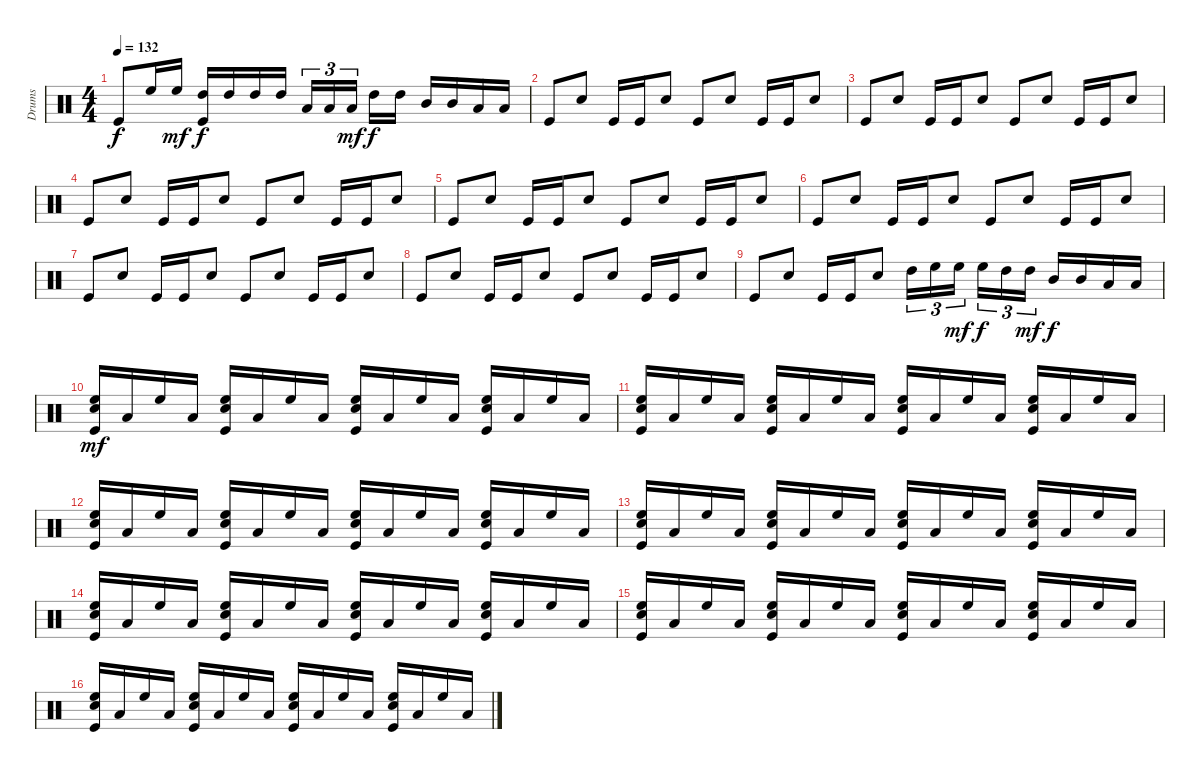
\track ("Drums" "Drums") {instrument percussion}
\staff {score}
\articulation defaults
\ts (4 4)
\tempo 132
\clef neutral
\ks c "Kick (hit)".8{dy f} "High Floor Tom (hit)".16 "High Floor Tom (hit)".16{dy mf}
("Kick (hit)" "High Tom (hit)").16{dy f} "High Tom (hit)".16 "High Tom (hit)".16 "High Tom (hit)".16 "Low Tom (hit)".16{tu (3 2)} "Low Tom (hit)".16{tu (3 2)} "Low Tom (hit)".16{tu (3 2) dy mf} "High Tom (hit)".16{dy f} "High Tom (hit)".16 "Mid Tom (hit)".16 "Mid Tom (hit)".16 "Low Tom (hit)".16 "Low Tom (hit)".16 |
"Kick (hit)".8 "Electric Snare (hit)".8 "Kick (hit)".16 "Kick (hit)".16 "Electric Snare (hit)".8 "Kick (hit)".8 "Electric Snare (hit)".8 "Kick (hit)".16 "Kick (hit)".16 "Electric Snare (hit)".8 |
"Kick (hit)".8 "Electric Snare (hit)".8 "Kick (hit)".16 "Kick (hit)".16 "Electric Snare (hit)".8 "Kick (hit)".8 "Electric Snare (hit)".8 "Kick (hit)".16 "Kick (hit)".16 "Electric Snare (hit)".8 |
"Kick (hit)".8 "Electric Snare (hit)".8 "Kick (hit)".16 "Kick (hit)".16 "Electric Snare (hit)".8 "Kick (hit)".8 "Electric Snare (hit)".8 "Kick (hit)".16 "Kick (hit)".16 "Electric Snare (hit)".8 |
"Kick (hit)".8 "Electric Snare (hit)".8 "Kick (hit)".16 "Kick (hit)".16 "Electric Snare (hit)".8 "Kick (hit)".8 "Electric Snare (hit)".8 "Kick (hit)".16 "Kick (hit)".16 "Electric Snare (hit)".8 |
"Kick (hit)".8 "Electric Snare (hit)".8 "Kick (hit)".16 "Kick (hit)".16 "Electric Snare (hit)".8 "Kick (hit)".8 "Electric Snare (hit)".8 "Kick (hit)".16 "Kick (hit)".16 "Electric Snare (hit)".8 |
"Kick (hit)".8 "Electric Snare (hit)".8 "Kick (hit)".16 "Kick (hit)".16 "Electric Snare (hit)".8 "Kick (hit)".8 "Electric Snare (hit)".8 "Kick (hit)".16 "Kick (hit)".16 "Electric Snare (hit)".8 |
"Kick (hit)".8 "Electric Snare (hit)".8 "Kick (hit)".16 "Kick (hit)".16 "Electric Snare (hit)".8 "Kick (hit)".8 "Electric Snare (hit)".8 "Kick (hit)".16 "Kick (hit)".16 "Electric Snare (hit)".8 |
"Kick (hit)".8 "Electric Snare (hit)".8 "Kick (hit)".16 "Kick (hit)".16 "Electric Snare (hit)".8 "High Tom (hit)".16{tu (3 2)} "High Floor Tom (hit)".16{tu (3 2)} "High Floor Tom (hit)".16{tu (3 2) dy mf} "High Floor Tom (hit)".16{tu (3 2) dy f} "High Tom (hit)".16{tu (3 2)} "High Tom (hit)".16{tu (3 2) dy mf} "Mid Tom (hit)".16{dy f} "Mid Tom (hit)".16 "Low Tom (hit)".16 "Low Tom (hit)".16 |
("Kick (hit)" "High Floor Tom (hit)" "Electric Snare (hit)").16{dy mf} "Low Tom (hit)".16 "High Floor Tom (hit)".16 "Low Tom (hit)".16 ("Kick (hit)" "High Floor Tom (hit)" "Electric Snare (hit)").16 "Low Tom (hit)".16 "High Floor Tom (hit)".16 "Low Tom (hit)".16 ("Kick (hit)" "High Floor Tom (hit)" "Electric Snare (hit)").16 "Low Tom (hit)".16 "High Floor Tom (hit)".16 "Low Tom (hit)".16 ("Kick (hit)" "High Floor Tom (hit)" "Electric Snare (hit)").16 "Low Tom (hit)".16 "High Floor Tom (hit)".16 "Low Tom (hit)".16 |
("Kick (hit)" "High Floor Tom (hit)" "Electric Snare (hit)").16 "Low Tom (hit)".16 "High Floor Tom (hit)".16 "Low Tom (hit)".16 ("Kick (hit)" "High Floor Tom (hit)" "Electric Snare (hit)").16 "Low Tom (hit)".16 "High Floor Tom (hit)".16 "Low Tom (hit)".16 ("Kick (hit)" "High Floor Tom (hit)" "Electric Snare (hit)").16 "Low Tom (hit)".16 "High Floor Tom (hit)".16 "Low Tom (hit)".16 ("Kick (hit)" "High Floor Tom (hit)" "Electric Snare (hit)").16 "Low Tom (hit)".16 "High Floor Tom (hit)".16 "Low Tom (hit)".16 |
("Kick (hit)" "High Floor Tom (hit)" "Electric Snare (hit)").16 "Low Tom (hit)".16 "High Floor Tom (hit)".16 "Low Tom (hit)".16 ("Kick (hit)" "High Floor Tom (hit)" "Electric Snare (hit)").16 "Low Tom (hit)".16 "High Floor Tom (hit)".16 "Low Tom (hit)".16 ("Kick (hit)" "High Floor Tom (hit)" "Electric Snare (hit)").16 "Low Tom (hit)".16 "High Floor Tom (hit)".16 "Low Tom (hit)".16 ("Kick (hit)" "High Floor Tom (hit)" "Electric Snare (hit)").16 "Low Tom (hit)".16 "High Floor Tom (hit)".16 "Low Tom (hit)".16 |
("Kick (hit)" "High Floor Tom (hit)" "Electric Snare (hit)").16 "Low Tom (hit)".16 "High Floor Tom (hit)".16 "Low Tom (hit)".16 ("Kick (hit)" "High Floor Tom (hit)" "Electric Snare (hit)").16 "Low Tom (hit)".16 "High Floor Tom (hit)".16 "Low Tom (hit)".16 ("Kick (hit)" "High Floor Tom (hit)" "Electric Snare (hit)").16 "Low Tom (hit)".16 "High Floor Tom (hit)".16 "Low Tom (hit)".16 ("Kick (hit)" "High Floor Tom (hit)" "Electric Snare (hit)").16 "Low Tom (hit)".16 "High Floor Tom (hit)".16 "Low Tom (hit)".16 |
("Kick (hit)" "High Floor Tom (hit)" "Electric Snare (hit)").16 "Low Tom (hit)".16 "High Floor Tom (hit)".16 "Low Tom (hit)".16 ("Kick (hit)" "High Floor Tom (hit)" "Electric Snare (hit)").16 "Low Tom (hit)".16 "High Floor Tom (hit)".16 "Low Tom (hit)".16 ("Kick (hit)" "High Floor Tom (hit)" "Electric Snare (hit)").16 "Low Tom (hit)".16 "High Floor Tom (hit)".16 "Low Tom (hit)".16 ("Kick (hit)" "High Floor Tom (hit)" "Electric Snare (hit)").16 "Low Tom (hit)".16 "High Floor Tom (hit)".16 "Low Tom (hit)".16 |
("Kick (hit)" "High Floor Tom (hit)" "Electric Snare (hit)").16 "Low Tom (hit)".16 "High Floor Tom (hit)".16 "Low Tom (hit)".16 ("Kick (hit)" "High Floor Tom (hit)" "Electric Snare (hit)").16 "Low Tom (hit)".16 "High Floor Tom (hit)".16 "Low Tom (hit)".16 ("Kick (hit)" "High Floor Tom (hit)" "Electric Snare (hit)").16 "Low Tom (hit)".16 "High Floor Tom (hit)".16 "Low Tom (hit)".16 ("Kick (hit)" "High Floor Tom (hit)" "Electric Snare (hit)").16 "Low Tom (hit)".16 "High Floor Tom (hit)".16 "Low Tom (hit)".16 |
("Kick (hit)" "High Floor Tom (hit)" "Electric Snare (hit)").16 "Low Tom (hit)".16 "High Floor Tom (hit)".16 "Low Tom (hit)".16 ("Kick (hit)" "High Floor Tom (hit)" "Electric Snare (hit)").16 "Low Tom (hit)".16 "High Floor Tom (hit)".16 "Low Tom (hit)".16 ("Kick (hit)" "High Floor Tom (hit)" "Electric Snare (hit)").16 "Low Tom (hit)".16 "High Floor Tom (hit)".16 "Low Tom (hit)".16 ("Kick (hit)" "High Floor Tom (hit)" "Electric Snare (hit)").16 "Low Tom (hit)".16 "High Floor Tom (hit)".16 "Low Tom (hit)".16
